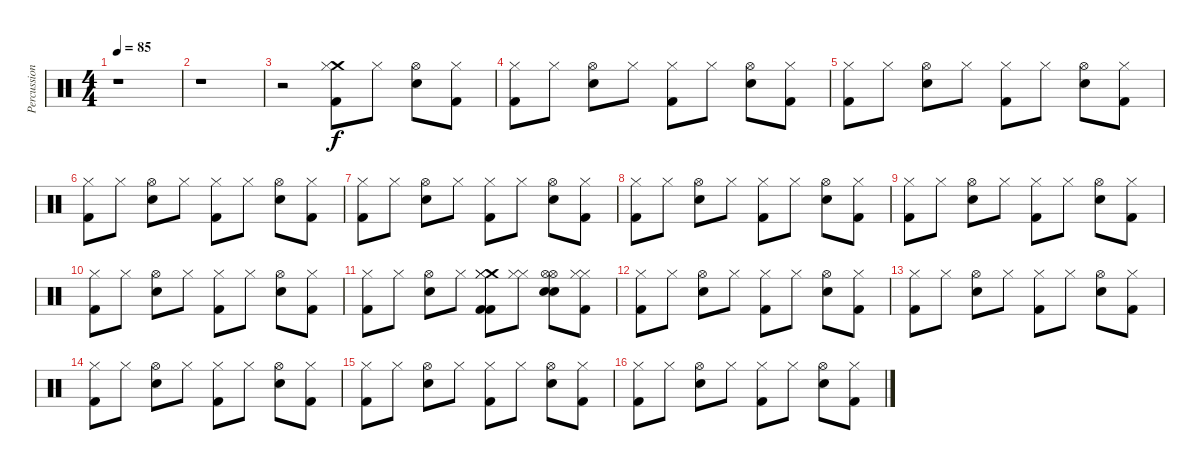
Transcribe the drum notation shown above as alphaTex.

\track ("Percussion" "Percussion") {instrument percussion}
\staff {score}
\articulation defaults
\ts (4 4)
\tempo 85
\clef neutral
\ks c
r.1{dy f} |
r.1 |
r.2 ("Crash medium (hit)" "Kick (hit) 2" "Hi-Hat (closed)").8 "Hi-Hat (closed)".8 ("Hi-Hat (open)" "Electric Snare (hit)").8 ("Kick (hit) 2" "Hi-Hat (closed)").8 |
("Kick (hit) 2" "Hi-Hat (closed)").8 "Hi-Hat (closed)".8 ("Hi-Hat (open)" "Electric Snare (hit)").8 "Hi-Hat (closed)".8 ("Kick (hit) 2" "Hi-Hat (closed)").8 "Hi-Hat (closed)".8 ("Hi-Hat (open)" "Electric Snare (hit)").8 ("Kick (hit) 2" "Hi-Hat (closed)").8 |
("Kick (hit) 2" "Hi-Hat (closed)").8 "Hi-Hat (closed)".8 ("Hi-Hat (open)" "Electric Snare (hit)").8 "Hi-Hat (closed)".8 ("Kick (hit) 2" "Hi-Hat (closed)").8 "Hi-Hat (closed)".8 ("Hi-Hat (open)" "Electric Snare (hit)").8 ("Kick (hit) 2" "Hi-Hat (closed)").8 |
("Kick (hit) 2" "Hi-Hat (closed)").8 "Hi-Hat (closed)".8 ("Hi-Hat (open)" "Electric Snare (hit)").8 "Hi-Hat (closed)".8 ("Kick (hit) 2" "Hi-Hat (closed)").8 "Hi-Hat (closed)".8 ("Hi-Hat (open)" "Electric Snare (hit)").8 ("Kick (hit) 2" "Hi-Hat (closed)").8 |
("Kick (hit) 2" "Hi-Hat (closed)").8 "Hi-Hat (closed)".8 ("Hi-Hat (open)" "Electric Snare (hit)").8 "Hi-Hat (closed)".8 ("Kick (hit) 2" "Hi-Hat (closed)").8 "Hi-Hat (closed)".8 ("Hi-Hat (open)" "Electric Snare (hit)").8 ("Kick (hit) 2" "Hi-Hat (closed)").8 |
("Kick (hit) 2" "Hi-Hat (closed)").8 "Hi-Hat (closed)".8 ("Hi-Hat (open)" "Electric Snare (hit)").8 "Hi-Hat (closed)".8 ("Kick (hit) 2" "Hi-Hat (closed)").8 "Hi-Hat (closed)".8 ("Hi-Hat (open)" "Electric Snare (hit)").8 ("Kick (hit) 2" "Hi-Hat (closed)").8 |
("Kick (hit) 2" "Hi-Hat (closed)").8 "Hi-Hat (closed)".8 ("Hi-Hat (open)" "Electric Snare (hit)").8 "Hi-Hat (closed)".8 ("Kick (hit) 2" "Hi-Hat (closed)").8 "Hi-Hat (closed)".8 ("Hi-Hat (open)" "Electric Snare (hit)").8 ("Kick (hit) 2" "Hi-Hat (closed)").8 |
("Kick (hit) 2" "Hi-Hat (closed)").8 "Hi-Hat (closed)".8 ("Hi-Hat (open)" "Electric Snare (hit)").8 "Hi-Hat (closed)".8 ("Kick (hit) 2" "Hi-Hat (closed)").8 "Hi-Hat (closed)".8 ("Hi-Hat (open)" "Electric Snare (hit)").8 ("Kick (hit) 2" "Hi-Hat (closed)").8 |
("Kick (hit) 2" "Hi-Hat (closed)").8 "Hi-Hat (closed)".8 ("Hi-Hat (open)" "Electric Snare (hit)").8 "Hi-Hat (closed)".8 ("Crash medium (hit)" "Kick (hit) 2" "Hi-Hat (closed)" "Kick (hit) 2" "Hi-Hat (closed)").8 ("Hi-Hat (closed)" "Hi-Hat (closed)").8 ("Hi-Hat (open)" "Electric Snare (hit)" "Hi-Hat (open)" "Electric Snare (hit)").8 ("Hi-Hat (closed)" "Kick (hit) 2" "Hi-Hat (closed)").8 |
("Kick (hit) 2" "Hi-Hat (closed)").8 "Hi-Hat (closed)".8 ("Hi-Hat (open)" "Electric Snare (hit)").8 "Hi-Hat (closed)".8 ("Kick (hit) 2" "Hi-Hat (closed)").8 "Hi-Hat (closed)".8 ("Hi-Hat (open)" "Electric Snare (hit)").8 ("Kick (hit) 2" "Hi-Hat (closed)").8 |
("Kick (hit) 2" "Hi-Hat (closed)").8 "Hi-Hat (closed)".8 ("Hi-Hat (open)" "Electric Snare (hit)").8 "Hi-Hat (closed)".8 ("Kick (hit) 2" "Hi-Hat (closed)").8 "Hi-Hat (closed)".8 ("Hi-Hat (open)" "Electric Snare (hit)").8 ("Kick (hit) 2" "Hi-Hat (closed)").8 |
("Kick (hit) 2" "Hi-Hat (closed)").8 "Hi-Hat (closed)".8 ("Hi-Hat (open)" "Electric Snare (hit)").8 "Hi-Hat (closed)".8 ("Kick (hit) 2" "Hi-Hat (closed)").8 "Hi-Hat (closed)".8 ("Hi-Hat (open)" "Electric Snare (hit)").8 ("Kick (hit) 2" "Hi-Hat (closed)").8 |
("Kick (hit) 2" "Hi-Hat (closed)").8 "Hi-Hat (closed)".8 ("Hi-Hat (open)" "Electric Snare (hit)").8 "Hi-Hat (closed)".8 ("Kick (hit) 2" "Hi-Hat (closed)").8 "Hi-Hat (closed)".8 ("Hi-Hat (open)" "Electric Snare (hit)").8 ("Kick (hit) 2" "Hi-Hat (closed)").8 |
("Kick (hit) 2" "Hi-Hat (closed)").8 "Hi-Hat (closed)".8 ("Hi-Hat (open)" "Electric Snare (hit)").8 "Hi-Hat (closed)".8 ("Kick (hit) 2" "Hi-Hat (closed)").8 "Hi-Hat (closed)".8 ("Hi-Hat (open)" "Electric Snare (hit)").8 ("Kick (hit) 2" "Hi-Hat (closed)").8
